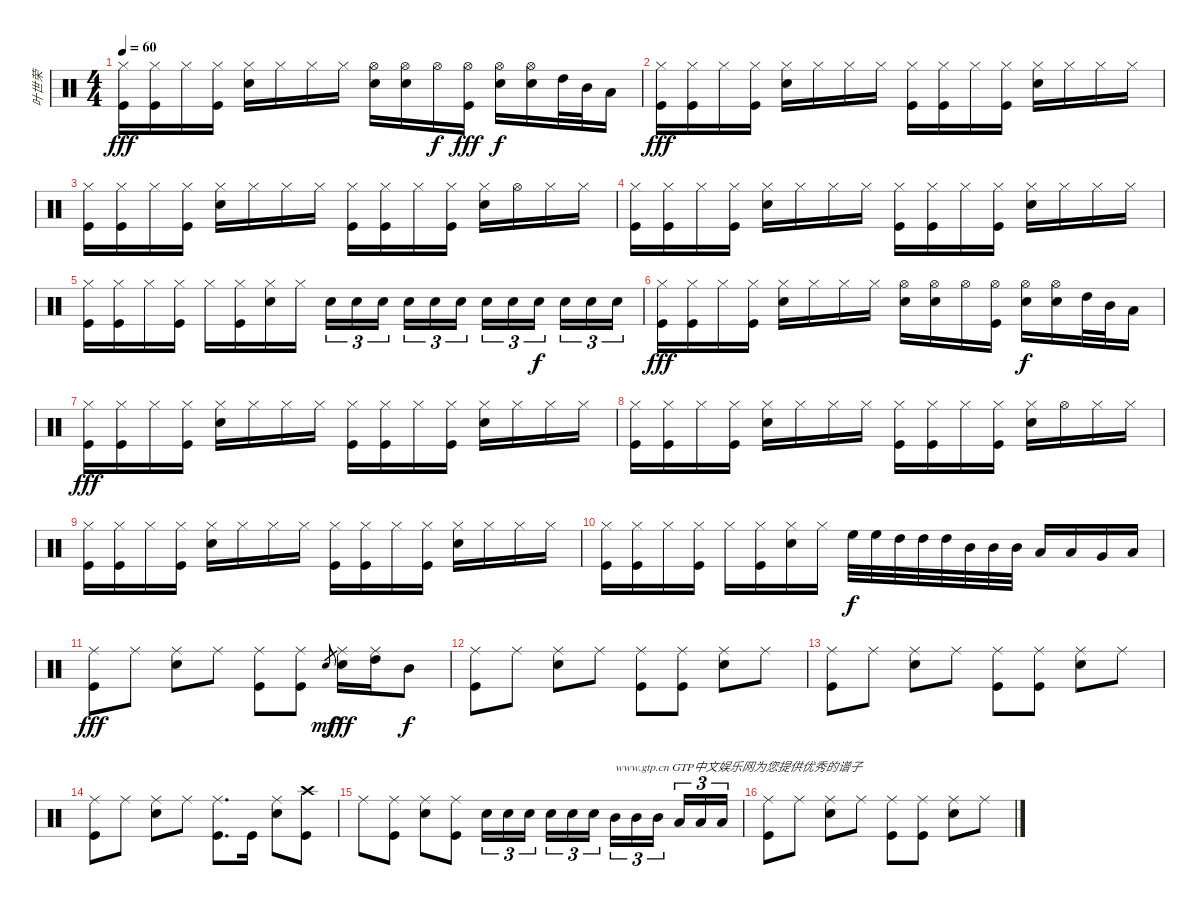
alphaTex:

\track ("叶世荣" "叶世荣") {instrument percussion}
\staff {score}
\articulation defaults
\ts (4 4)
\tempo 60
\clef neutral
\ks c
("Hi-Hat (closed)" "Kick (hit)").16{dy fff} ("Hi-Hat (closed)" "Kick (hit)").16 "Hi-Hat (closed)".16 ("Hi-Hat (closed)" "Kick (hit)").16 ("Hi-Hat (closed)" "Snare (hit) 2").16 "Hi-Hat (closed)".16 "Hi-Hat (closed)".16 "Hi-Hat (closed)".16 ("Hi-Hat (open)" "Snare (hit) 2").16 ("Hi-Hat (open)" "Snare (hit) 2").16 "Hi-Hat (open)".16{dy f} ("Hi-Hat (open)" "Kick (hit)").16{dy fff} ("Hi-Hat (open)" "Snare (hit) 2").16{dy f} ("Hi-Hat (open)" "Snare (hit) 2").16 "High Tom (hit)".32 "Mid Tom (hit)".32 "Low Tom (hit)".16 |
("Hi-Hat (closed)" "Kick (hit)").16{dy fff} ("Hi-Hat (closed)" "Kick (hit)").16 "Hi-Hat (closed)".16 ("Hi-Hat (closed)" "Kick (hit)").16 ("Hi-Hat (closed)" "Snare (hit) 2").16 "Hi-Hat (closed)".16 "Hi-Hat (closed)".16 "Hi-Hat (closed)".16 ("Hi-Hat (closed)" "Kick (hit)").16 ("Hi-Hat (closed)" "Kick (hit)").16 "Hi-Hat (closed)".16 ("Hi-Hat (closed)" "Kick (hit)").16 ("Hi-Hat (closed)" "Snare (hit) 2").16 "Hi-Hat (closed)".16 "Hi-Hat (closed)".16 "Hi-Hat (closed)".16 |
("Hi-Hat (closed)" "Kick (hit)").16 ("Hi-Hat (closed)" "Kick (hit)").16 "Hi-Hat (closed)".16 ("Hi-Hat (closed)" "Kick (hit)").16 ("Hi-Hat (closed)" "Snare (hit) 2").16 "Hi-Hat (closed)".16 "Hi-Hat (closed)".16 "Hi-Hat (closed)".16 ("Hi-Hat (closed)" "Kick (hit)").16 ("Hi-Hat (closed)" "Kick (hit)").16 "Hi-Hat (closed)".16 ("Hi-Hat (closed)" "Kick (hit)").16 ("Hi-Hat (closed)" "Snare (hit) 2").16 "Hi-Hat (open)".16 "Hi-Hat (closed)".16 "Hi-Hat (closed)".16 |
("Hi-Hat (closed)" "Kick (hit)").16 ("Hi-Hat (closed)" "Kick (hit)").16 "Hi-Hat (closed)".16 ("Hi-Hat (closed)" "Kick (hit)").16 ("Hi-Hat (closed)" "Snare (hit) 2").16 "Hi-Hat (closed)".16 "Hi-Hat (closed)".16 "Hi-Hat (closed)".16 ("Hi-Hat (closed)" "Kick (hit)").16 ("Hi-Hat (closed)" "Kick (hit)").16 "Hi-Hat (closed)".16 ("Hi-Hat (closed)" "Kick (hit)").16 ("Hi-Hat (closed)" "Snare (hit) 2").16 "Hi-Hat (closed)".16 "Hi-Hat (closed)".16 "Hi-Hat (closed)".16 |
("Hi-Hat (closed)" "Kick (hit)").16 ("Hi-Hat (closed)" "Kick (hit)").16 "Hi-Hat (closed)".16 ("Hi-Hat (closed)" "Kick (hit)").16 "Hi-Hat (closed)".16 ("Hi-Hat (closed)" "Kick (hit)").16 ("Hi-Hat (closed)" "Snare (hit) 2").16 "Hi-Hat (closed)".16 "Snare (hit) 2".16{tu (3 2)} "Snare (hit) 2".16{tu (3 2)} "Snare (hit) 2".16{tu (3 2) beam splitsecondary} "Snare (hit) 2".16{tu (3 2)} "Snare (hit) 2".16{tu (3 2)} "Snare (hit) 2".16{tu (3 2)} "Snare (hit) 2".16{tu (3 2)} "Snare (hit) 2".16{tu (3 2)} "Snare (hit) 2".16{tu (3 2) dy f beam splitsecondary} "Snare (hit) 2".16{tu (3 2)} "Snare (hit) 2".16{tu (3 2)} "Snare (hit) 2".16{tu (3 2)} |
("Hi-Hat (closed)" "Kick (hit)").16{dy fff} ("Hi-Hat (closed)" "Kick (hit)").16 "Hi-Hat (closed)".16 ("Hi-Hat (closed)" "Kick (hit)").16 ("Hi-Hat (closed)" "Snare (hit) 2").16 "Hi-Hat (closed)".16 "Hi-Hat (closed)".16 "Hi-Hat (closed)".16 ("Hi-Hat (open)" "Snare (hit) 2").16 ("Hi-Hat (open)" "Snare (hit) 2").16 "Hi-Hat (open)".16 ("Hi-Hat (open)" "Kick (hit)").16 ("Hi-Hat (open)" "Snare (hit) 2").16{dy f} ("Hi-Hat (open)" "Snare (hit) 2").16 "High Tom (hit)".32 "Mid Tom (hit)".32 "Low Tom (hit)".16 |
("Hi-Hat (closed)" "Kick (hit)").16{dy fff} ("Hi-Hat (closed)" "Kick (hit)").16 "Hi-Hat (closed)".16 ("Hi-Hat (closed)" "Kick (hit)").16 ("Hi-Hat (closed)" "Snare (hit) 2").16 "Hi-Hat (closed)".16 "Hi-Hat (closed)".16 "Hi-Hat (closed)".16 ("Hi-Hat (closed)" "Kick (hit)").16 ("Hi-Hat (closed)" "Kick (hit)").16 "Hi-Hat (closed)".16 ("Hi-Hat (closed)" "Kick (hit)").16 ("Hi-Hat (closed)" "Snare (hit) 2").16 "Hi-Hat (closed)".16 "Hi-Hat (closed)".16 "Hi-Hat (closed)".16 |
("Hi-Hat (closed)" "Kick (hit)").16 ("Hi-Hat (closed)" "Kick (hit)").16 "Hi-Hat (closed)".16 ("Hi-Hat (closed)" "Kick (hit)").16 ("Hi-Hat (closed)" "Snare (hit) 2").16 "Hi-Hat (closed)".16 "Hi-Hat (closed)".16 "Hi-Hat (closed)".16 ("Hi-Hat (closed)" "Kick (hit)").16 ("Hi-Hat (closed)" "Kick (hit)").16 "Hi-Hat (closed)".16 ("Hi-Hat (closed)" "Kick (hit)").16 ("Hi-Hat (closed)" "Snare (hit) 2").16 "Hi-Hat (open)".16 "Hi-Hat (closed)".16 "Hi-Hat (closed)".16 |
("Hi-Hat (closed)" "Kick (hit)").16 ("Hi-Hat (closed)" "Kick (hit)").16 "Hi-Hat (closed)".16 ("Hi-Hat (closed)" "Kick (hit)").16 ("Hi-Hat (closed)" "Snare (hit) 2").16 "Hi-Hat (closed)".16 "Hi-Hat (closed)".16 "Hi-Hat (closed)".16 ("Hi-Hat (closed)" "Kick (hit)").16 ("Hi-Hat (closed)" "Kick (hit)").16 "Hi-Hat (closed)".16 ("Hi-Hat (closed)" "Kick (hit)").16 ("Hi-Hat (closed)" "Snare (hit) 2").16 "Hi-Hat (closed)".16 "Hi-Hat (closed)".16 "Hi-Hat (closed)".16 |
("Hi-Hat (closed)" "Kick (hit)").16 ("Hi-Hat (closed)" "Kick (hit)").16 "Hi-Hat (closed)".16 ("Hi-Hat (closed)" "Kick (hit)").16 "Hi-Hat (closed)".16 ("Hi-Hat (closed)" "Kick (hit)").16 ("Hi-Hat (closed)" "Snare (hit) 2").16 "Hi-Hat (closed)".16 "High Floor Tom (hit)".32{dy f} "High Floor Tom (hit)".32 "High Tom (hit)".32 "High Tom (hit)".32 "High Tom (hit)".32 "Mid Tom (hit)".32 "Mid Tom (hit)".32 "Mid Tom (hit)".32 "Low Tom (hit)".16 "Low Tom (hit)".16 "Very Low Tom (hit)".16 "Low Floor Tom (hit)".16 |
("Ride (middle)" "Kick (hit)").8{dy fff} "Ride (middle)".8 ("Ride (middle)" "Snare (hit) 2").8 "Ride (middle)".8 ("Ride (middle)" "Kick (hit)").8 ("Ride (middle)" "Kick (hit)").8 "Snare (hit) 2".8{gr dy mf} ("Ride (middle)" "Snare (hit) 2").16{dy fff} ("Ride (middle)" "High Tom (hit)").16 "Mid Tom (hit)".8{dy f} |
("Ride (middle)" "Kick (hit)").8 "Ride (middle)".8 ("Ride (middle)" "Snare (hit) 2").8 "Ride (middle)".8 ("Ride (middle)" "Kick (hit)").8 ("Ride (middle)" "Kick (hit)").8 ("Ride (middle)" "Snare (hit) 2").8 "Ride (middle)".8 |
("Ride (middle)" "Kick (hit)").8 "Ride (middle)".8 ("Ride (middle)" "Snare (hit) 2").8 "Ride (middle)".8 ("Ride (middle)" "Kick (hit)").8 ("Ride (middle)" "Kick (hit)").8 ("Ride (middle)" "Snare (hit) 2").8 "Ride (middle)".8 |
("Ride (middle)" "Kick (hit)").8 "Ride (middle)".8 ("Ride (middle)" "Snare (hit) 2").8 "Ride (middle)".8 ("Ride (middle)" "Kick (hit)").8{d} "Kick (hit)".16 ("Ride (middle)" "Snare (hit) 2").8 ("Crash high (hit)" "Kick (hit)").8 |
"Ride (middle)".8 ("Ride (middle)" "Kick (hit)").8 ("Ride (middle)" "Snare (hit) 2").8 ("Ride (middle)" "Kick (hit)").8 "Snare (hit) 2".16{tu (3 2)} "Snare (hit) 2".16{tu (3 2)} "Snare (hit) 2".16{tu (3 2) beam splitsecondary} "Snare (hit) 2".16{tu (3 2)} "Snare (hit) 2".16{tu (3 2)} "Snare (hit) 2".16{tu (3 2)} "Mid Tom (hit)".16{tu (3 2) txt "www.gtp.cn GTP中文娱乐网为您提供优秀的谱子"} "Mid Tom (hit)".16{tu (3 2)} "Mid Tom (hit)".16{tu (3 2) beam splitsecondary} "Low Tom (hit)".16{tu (3 2)} "Low Tom (hit)".16{tu (3 2)} "Low Tom (hit)".16{tu (3 2)} |
("Ride (middle)" "Kick (hit)").8 "Ride (middle)".8 ("Ride (middle)" "Snare (hit) 2").8 "Ride (middle)".8 ("Ride (middle)" "Kick (hit)").8 ("Ride (middle)" "Kick (hit)").8 ("Ride (middle)" "Snare (hit) 2").8 "Ride (middle)".8
